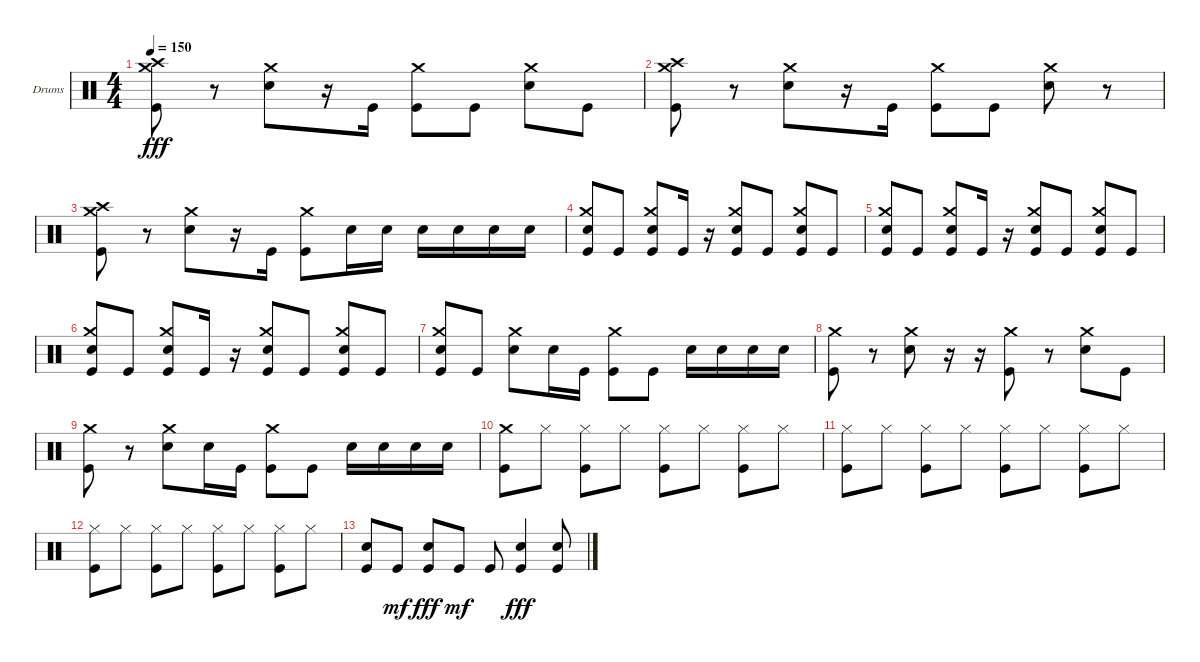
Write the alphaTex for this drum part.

\bracketExtendMode groupsimilarinstruments
\firstSystemTrackNameOrientation horizontal
\otherSystemsTrackNameOrientation horizontal
\track ("Jamie" "Drums") {instrument percussion}
\staff {score}
\articulation defaults
\ts (4 4)
\tempo 150
\clef neutral
\ks c
("Kick (hit)" "Crash medium (hit)" "Crash high (hit)").8{dy fff} r.8 ("Snare (hit) 2" "Crash medium (hit)").8 r.16 "Kick (hit)".16 ("Kick (hit)" "Crash medium (hit)").8 "Kick (hit)".8 ("Snare (hit) 2" "Crash medium (hit)").8 "Kick (hit)".8 |
("Kick (hit)" "Crash medium (hit)" "Crash high (hit)").8 r.8 ("Snare (hit) 2" "Crash medium (hit)").8 r.16 "Kick (hit)".16 ("Kick (hit)" "Crash medium (hit)").8 "Kick (hit)".8 ("Snare (hit) 2" "Crash medium (hit)").8 r.8 |
("Kick (hit)" "Crash medium (hit)" "Crash high (hit)").8 r.8 ("Snare (hit) 2" "Crash medium (hit)").8 r.16 "Kick (hit)".16 ("Kick (hit)" "Crash medium (hit)").8 "Snare (hit) 2".16 "Snare (hit) 2".16 "Snare (hit) 2".16 "Snare (hit) 2".16 "Snare (hit) 2".16 "Snare (hit) 2".16 |
("Kick (hit)" "Crash medium (hit)" "Snare (hit) 2").8 "Kick (hit)".8 ("Snare (hit) 2" "Crash medium (hit)" "Kick (hit)").8 "Kick (hit)".16 r.16 ("Kick (hit)" "Crash medium (hit)" "Snare (hit) 2").8 "Kick (hit)".8 ("Snare (hit) 2" "Crash medium (hit)" "Kick (hit)").8 "Kick (hit)".8 |
("Kick (hit)" "Crash medium (hit)" "Snare (hit) 2").8 "Kick (hit)".8 ("Snare (hit) 2" "Crash medium (hit)" "Kick (hit)").8 "Kick (hit)".16 r.16 ("Kick (hit)" "Crash medium (hit)" "Snare (hit) 2").8 "Kick (hit)".8 ("Snare (hit) 2" "Crash medium (hit)" "Kick (hit)").8 "Kick (hit)".8 |
("Kick (hit)" "Crash medium (hit)" "Snare (hit) 2").8 "Kick (hit)".8 ("Snare (hit) 2" "Crash medium (hit)" "Kick (hit)").8 "Kick (hit)".16 r.16 ("Kick (hit)" "Crash medium (hit)" "Snare (hit) 2").8 "Kick (hit)".8 ("Snare (hit) 2" "Crash medium (hit)" "Kick (hit)").8 "Kick (hit)".8 |
("Kick (hit)" "Crash medium (hit)" "Snare (hit) 2").8 "Kick (hit)".8 ("Snare (hit) 2" "Crash medium (hit)").8 "Snare (hit) 2".16 "Kick (hit)".16 ("Kick (hit)" "Crash medium (hit)").8 "Kick (hit)".8 "Snare (hit) 2".16 "Snare (hit) 2".16 "Snare (hit) 2".16 "Snare (hit) 2".16 |
("Kick (hit)" "Crash medium (hit)").8 r.8 ("Snare (hit) 2" "Crash medium (hit)").8 r.16 r.16 ("Kick (hit)" "Crash medium (hit)").8 r.8 ("Snare (hit) 2" "Crash medium (hit)").8 "Kick (hit)".8 |
("Kick (hit)" "Crash medium (hit)").8 r.8 ("Snare (hit) 2" "Crash medium (hit)").8 "Snare (hit) 2".16 "Kick (hit)".16 ("Kick (hit)" "Crash medium (hit)").8 "Kick (hit)".8 "Snare (hit) 2".16 "Snare (hit) 2".16 "Snare (hit) 2".16 "Snare (hit) 2".16 |
("Kick (hit)" "Crash medium (hit)").8 "Hi-Hat (closed)".8 ("Kick (hit)" "Hi-Hat (closed)").8 "Hi-Hat (closed)".8 ("Kick (hit)" "Hi-Hat (closed)").8 "Hi-Hat (closed)".8 ("Kick (hit)" "Hi-Hat (closed)").8 "Hi-Hat (closed)".8 |
("Kick (hit)" "Hi-Hat (closed)").8 "Hi-Hat (closed)".8 ("Kick (hit)" "Hi-Hat (closed)").8 "Hi-Hat (closed)".8 ("Kick (hit)" "Hi-Hat (closed)").8 "Hi-Hat (closed)".8 ("Kick (hit)" "Hi-Hat (closed)").8 "Hi-Hat (closed)".8 |
("Kick (hit)" "Hi-Hat (closed)").8 "Hi-Hat (closed)".8 ("Kick (hit)" "Hi-Hat (closed)").8 "Hi-Hat (closed)".8 ("Kick (hit)" "Hi-Hat (closed)").8 "Hi-Hat (closed)".8 ("Kick (hit)" "Hi-Hat (closed)").8 "Hi-Hat (closed)".8 |
("Snare (hit) 2" "Kick (hit)").8 "Kick (hit)".8{dy mf} ("Snare (hit) 2" "Kick (hit)").8{dy fff} "Kick (hit)".8{dy mf} "Kick (hit)".8 ("Snare (hit) 2" "Kick (hit)").4{dy fff} ("Snare (hit) 2" "Kick (hit)").8
